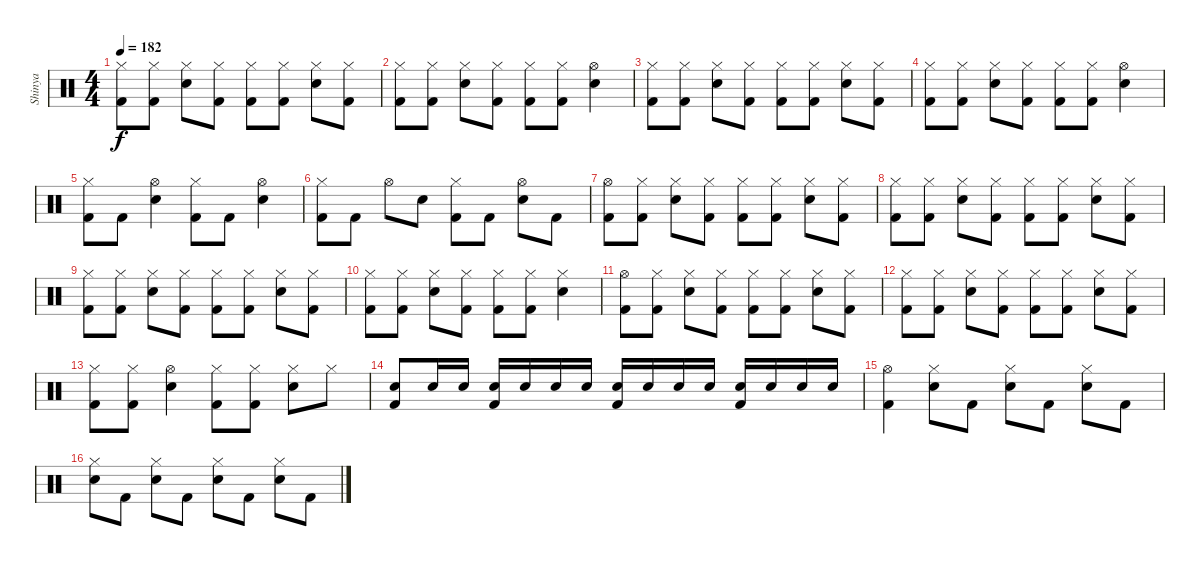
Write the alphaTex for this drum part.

\track ("Shinya" "Shinya") {instrument percussion}
\staff {score}
\articulation defaults
\ts (4 4)
\tempo 182
\clef neutral
\ks c
("Kick (hit) 2" "Hi-Hat (closed)").8{dy f} ("Kick (hit) 2" "Hi-Hat (closed)").8 ("Snare (hit) 2" "Hi-Hat (closed)").8 ("Kick (hit) 2" "Hi-Hat (closed)").8 ("Kick (hit) 2" "Hi-Hat (closed)").8 ("Kick (hit) 2" "Hi-Hat (closed)").8 ("Snare (hit) 2" "Hi-Hat (closed)").8 ("Kick (hit) 2" "Hi-Hat (closed)").8 |
("Kick (hit) 2" "Hi-Hat (closed)").8 ("Kick (hit) 2" "Hi-Hat (closed)").8 ("Snare (hit) 2" "Hi-Hat (closed)").8 ("Kick (hit) 2" "Hi-Hat (closed)").8 ("Kick (hit) 2" "Hi-Hat (closed)").8 ("Kick (hit) 2" "Hi-Hat (closed)").8 ("Snare (hit) 2" "Hi-Hat (open)").4 |
("Kick (hit) 2" "Hi-Hat (closed)").8 ("Kick (hit) 2" "Hi-Hat (closed)").8 ("Snare (hit) 2" "Hi-Hat (closed)").8 ("Kick (hit) 2" "Hi-Hat (closed)").8 ("Kick (hit) 2" "Hi-Hat (closed)").8 ("Kick (hit) 2" "Hi-Hat (closed)").8 ("Snare (hit) 2" "Hi-Hat (closed)").8 ("Kick (hit) 2" "Hi-Hat (closed)").8 |
("Kick (hit) 2" "Hi-Hat (closed)").8 ("Kick (hit) 2" "Hi-Hat (closed)").8 ("Snare (hit) 2" "Hi-Hat (closed)").8 ("Kick (hit) 2" "Hi-Hat (closed)").8 ("Kick (hit) 2" "Hi-Hat (closed)").8 ("Kick (hit) 2" "Hi-Hat (closed)").8 ("Snare (hit) 2" "Hi-Hat (open)").4 |
("Kick (hit) 2" "Hi-Hat (closed)").8 "Kick (hit) 2".8 ("Snare (hit) 2" "Hi-Hat (open)").4 ("Kick (hit) 2" "Hi-Hat (closed)").8 "Kick (hit) 2".8 ("Snare (hit) 2" "Hi-Hat (open)").4 |
("Kick (hit) 2" "Hi-Hat (closed)").8 "Kick (hit) 2".8 "Hi-Hat (open)".8 "Snare (hit) 2".8 ("Kick (hit) 2" "Hi-Hat (closed)").8 "Kick (hit) 2".8 ("Snare (hit) 2" "Hi-Hat (open)").8 "Kick (hit) 2".8 |
("Kick (hit) 2" "Hi-Hat (open)").8 ("Kick (hit) 2" "Hi-Hat (closed)").8 ("Snare (hit) 2" "Hi-Hat (closed)").8 ("Kick (hit) 2" "Hi-Hat (closed)").8 ("Kick (hit) 2" "Hi-Hat (closed)").8 ("Kick (hit) 2" "Hi-Hat (closed)").8 ("Snare (hit) 2" "Hi-Hat (closed)").8 ("Kick (hit) 2" "Hi-Hat (closed)").8 |
("Kick (hit) 2" "Hi-Hat (closed)").8 ("Kick (hit) 2" "Hi-Hat (closed)").8 ("Snare (hit) 2" "Hi-Hat (closed)").8 ("Kick (hit) 2" "Hi-Hat (closed)").8 ("Kick (hit) 2" "Hi-Hat (closed)").8 ("Kick (hit) 2" "Hi-Hat (closed)").8 ("Snare (hit) 2" "Hi-Hat (closed)").8 ("Kick (hit) 2" "Hi-Hat (closed)").8 |
("Kick (hit) 2" "Hi-Hat (closed)").8 ("Kick (hit) 2" "Hi-Hat (closed)").8 ("Snare (hit) 2" "Hi-Hat (closed)").8 ("Kick (hit) 2" "Hi-Hat (closed)").8 ("Kick (hit) 2" "Hi-Hat (closed)").8 ("Kick (hit) 2" "Hi-Hat (closed)").8 ("Snare (hit) 2" "Hi-Hat (closed)").8 ("Kick (hit) 2" "Hi-Hat (closed)").8 |
("Kick (hit) 2" "Hi-Hat (closed)").8 ("Kick (hit) 2" "Hi-Hat (closed)").8 ("Snare (hit) 2" "Hi-Hat (closed)").8 ("Kick (hit) 2" "Hi-Hat (closed)").8 ("Kick (hit) 2" "Hi-Hat (closed)").8 ("Kick (hit) 2" "Hi-Hat (closed)").8 ("Hi-Hat (closed)" "Snare (hit) 2").4 |
("Kick (hit) 2" "Hi-Hat (open)").8 ("Kick (hit) 2" "Hi-Hat (closed)").8 ("Snare (hit) 2" "Hi-Hat (closed)").8 ("Kick (hit) 2" "Hi-Hat (closed)").8 ("Kick (hit) 2" "Hi-Hat (closed)").8 ("Kick (hit) 2" "Hi-Hat (closed)").8 ("Snare (hit) 2" "Hi-Hat (closed)").8 ("Kick (hit) 2" "Hi-Hat (closed)").8 |
("Kick (hit) 2" "Hi-Hat (closed)").8 ("Kick (hit) 2" "Hi-Hat (closed)").8 ("Snare (hit) 2" "Hi-Hat (closed)").8 ("Kick (hit) 2" "Hi-Hat (closed)").8 ("Kick (hit) 2" "Hi-Hat (closed)").8 ("Kick (hit) 2" "Hi-Hat (closed)").8 ("Snare (hit) 2" "Hi-Hat (closed)").8 ("Kick (hit) 2" "Hi-Hat (closed)").8 |
("Kick (hit) 2" "Hi-Hat (closed)").8 ("Kick (hit) 2" "Hi-Hat (closed)").8 ("Snare (hit) 2" "Hi-Hat (open)").4 ("Kick (hit) 2" "Hi-Hat (closed)").8 ("Kick (hit) 2" "Hi-Hat (closed)").8 ("Snare (hit) 2" "Hi-Hat (closed)").8 "Hi-Hat (closed)".8 |
("Snare (hit) 2" "Kick (hit) 2").8 "Snare (hit) 2".16 "Snare (hit) 2".16 ("Snare (hit) 2" "Kick (hit) 2").16 "Snare (hit) 2".16 "Snare (hit) 2".16 "Snare (hit) 2".16 ("Snare (hit) 2" "Kick (hit) 2").16 "Snare (hit) 2".16 "Snare (hit) 2".16 "Snare (hit) 2".16 ("Snare (hit) 2" "Kick (hit) 2").16 "Snare (hit) 2".16 "Snare (hit) 2".16 "Snare (hit) 2".16 |
("Kick (hit) 2" "Hi-Hat (open)").4 ("Hi-Hat (closed)" "Snare (hit) 2").8 "Kick (hit) 2".8 ("Hi-Hat (closed)" "Snare (hit) 2").8 "Kick (hit) 2".8 ("Hi-Hat (closed)" "Snare (hit) 2").8 "Kick (hit) 2".8 |
("Snare (hit) 2" "Hi-Hat (closed)").8 "Kick (hit) 2".8 ("Snare (hit) 2" "Hi-Hat (closed)").8 "Kick (hit) 2".8 ("Snare (hit) 2" "Hi-Hat (closed)").8 "Kick (hit) 2".8 ("Snare (hit) 2" "Hi-Hat (closed)").8 "Kick (hit) 2".8
